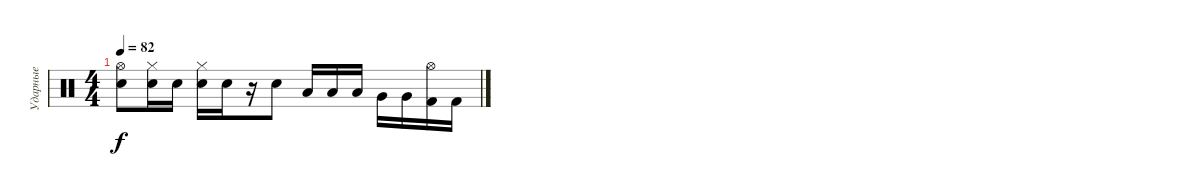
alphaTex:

\track ("Ударные" "Ударные") {instrument percussion}
\staff {score}
\articulation defaults
\ts (4 4)
\tempo 82
\clef neutral
\ks c
("Electric Snare (hit)" "Hi-Hat (open)").8{dy f} ("Electric Snare (hit)" "Hi-Hat (closed)").16 "Electric Snare (hit)".16 ("Electric Snare (hit)" "Hi-Hat (closed)").16 "Electric Snare (hit)".16 r.16 "Electric Snare (hit)".8 "Low Tom (hit)".16 "Low Tom (hit)".16 "Low Tom (hit)".16 "Very Low Tom (hit)".16 "Very Low Tom (hit)".16 ("Kick (hit) 2" "Hi-Hat (open)").16 "Kick (hit) 2".16
